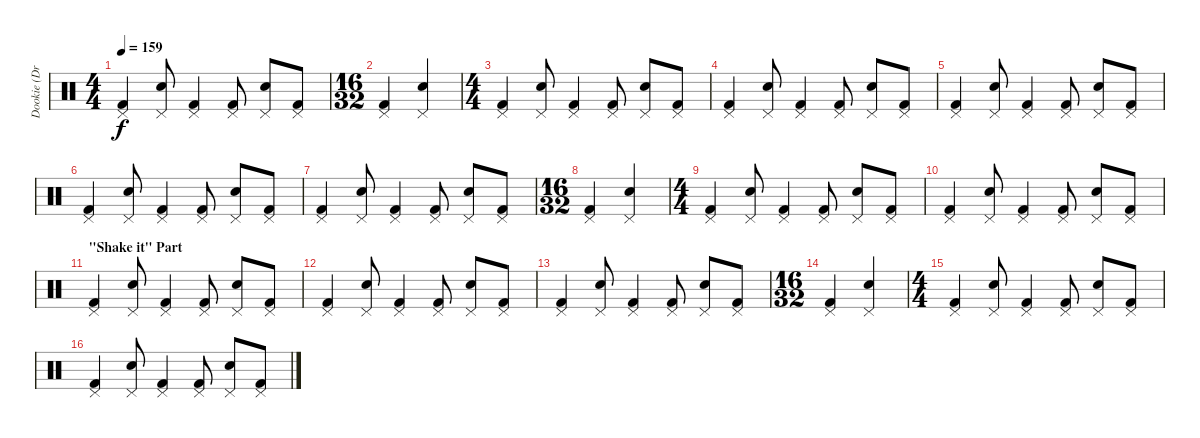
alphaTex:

\track ("Dookie (Drums)" "Dookie (Dr") {instrument percussion}
\staff {score}
\articulation defaults
\ts (4 4)
\tempo 159
\clef neutral
\ks c
("Kick (hit) 2" "Pedal Hi-Hat (hit)").4{dy f} ("Electric Snare (hit)" "Pedal Hi-Hat (hit)").8 ("Kick (hit) 2" "Pedal Hi-Hat (hit)").4 ("Kick (hit) 2" "Pedal Hi-Hat (hit)").8 ("Electric Snare (hit)" "Pedal Hi-Hat (hit)").8 ("Kick (hit) 2" "Pedal Hi-Hat (hit)").8 |
\ts (16 32)
("Kick (hit) 2" "Pedal Hi-Hat (hit)").4 ("Electric Snare (hit)" "Pedal Hi-Hat (hit)").4 |
\ts (4 4)
("Kick (hit) 2" "Pedal Hi-Hat (hit)").4 ("Electric Snare (hit)" "Pedal Hi-Hat (hit)").8 ("Kick (hit) 2" "Pedal Hi-Hat (hit)").4 ("Kick (hit) 2" "Pedal Hi-Hat (hit)").8 ("Electric Snare (hit)" "Pedal Hi-Hat (hit)").8 ("Kick (hit) 2" "Pedal Hi-Hat (hit)").8 |
("Kick (hit) 2" "Pedal Hi-Hat (hit)").4 ("Electric Snare (hit)" "Pedal Hi-Hat (hit)").8 ("Kick (hit) 2" "Pedal Hi-Hat (hit)").4 ("Kick (hit) 2" "Pedal Hi-Hat (hit)").8 ("Electric Snare (hit)" "Pedal Hi-Hat (hit)").8 ("Kick (hit) 2" "Pedal Hi-Hat (hit)").8 |
("Kick (hit) 2" "Pedal Hi-Hat (hit)").4 ("Electric Snare (hit)" "Pedal Hi-Hat (hit)").8 ("Kick (hit) 2" "Pedal Hi-Hat (hit)").4 ("Kick (hit) 2" "Pedal Hi-Hat (hit)").8 ("Electric Snare (hit)" "Pedal Hi-Hat (hit)").8 ("Kick (hit) 2" "Pedal Hi-Hat (hit)").8 |
("Kick (hit) 2" "Pedal Hi-Hat (hit)").4 ("Electric Snare (hit)" "Pedal Hi-Hat (hit)").8 ("Kick (hit) 2" "Pedal Hi-Hat (hit)").4 ("Kick (hit) 2" "Pedal Hi-Hat (hit)").8 ("Electric Snare (hit)" "Pedal Hi-Hat (hit)").8 ("Kick (hit) 2" "Pedal Hi-Hat (hit)").8 |
("Kick (hit) 2" "Pedal Hi-Hat (hit)").4 ("Electric Snare (hit)" "Pedal Hi-Hat (hit)").8 ("Kick (hit) 2" "Pedal Hi-Hat (hit)").4 ("Kick (hit) 2" "Pedal Hi-Hat (hit)").8 ("Electric Snare (hit)" "Pedal Hi-Hat (hit)").8 ("Kick (hit) 2" "Pedal Hi-Hat (hit)").8 |
\ts (16 32)
("Kick (hit) 2" "Pedal Hi-Hat (hit)").4 ("Electric Snare (hit)" "Pedal Hi-Hat (hit)").4 |
\ts (4 4)
("Kick (hit) 2" "Pedal Hi-Hat (hit)").4 ("Electric Snare (hit)" "Pedal Hi-Hat (hit)").8 ("Kick (hit) 2" "Pedal Hi-Hat (hit)").4 ("Kick (hit) 2" "Pedal Hi-Hat (hit)").8 ("Electric Snare (hit)" "Pedal Hi-Hat (hit)").8 ("Kick (hit) 2" "Pedal Hi-Hat (hit)").8 |
("Kick (hit) 2" "Pedal Hi-Hat (hit)").4 ("Electric Snare (hit)" "Pedal Hi-Hat (hit)").8 ("Kick (hit) 2" "Pedal Hi-Hat (hit)").4 ("Kick (hit) 2" "Pedal Hi-Hat (hit)").8 ("Electric Snare (hit)" "Pedal Hi-Hat (hit)").8 ("Kick (hit) 2" "Pedal Hi-Hat (hit)").8 |
\section ("" "\"Shake it\" Part")
("Kick (hit) 2" "Pedal Hi-Hat (hit)").4 ("Electric Snare (hit)" "Pedal Hi-Hat (hit)").8 ("Kick (hit) 2" "Pedal Hi-Hat (hit)").4 ("Kick (hit) 2" "Pedal Hi-Hat (hit)").8 ("Electric Snare (hit)" "Pedal Hi-Hat (hit)").8 ("Kick (hit) 2" "Pedal Hi-Hat (hit)").8 |
("Kick (hit) 2" "Pedal Hi-Hat (hit)").4 ("Electric Snare (hit)" "Pedal Hi-Hat (hit)").8 ("Kick (hit) 2" "Pedal Hi-Hat (hit)").4 ("Kick (hit) 2" "Pedal Hi-Hat (hit)").8 ("Electric Snare (hit)" "Pedal Hi-Hat (hit)").8 ("Kick (hit) 2" "Pedal Hi-Hat (hit)").8 |
("Kick (hit) 2" "Pedal Hi-Hat (hit)").4 ("Electric Snare (hit)" "Pedal Hi-Hat (hit)").8 ("Kick (hit) 2" "Pedal Hi-Hat (hit)").4 ("Kick (hit) 2" "Pedal Hi-Hat (hit)").8 ("Electric Snare (hit)" "Pedal Hi-Hat (hit)").8 ("Kick (hit) 2" "Pedal Hi-Hat (hit)").8 |
\ts (16 32)
("Kick (hit) 2" "Pedal Hi-Hat (hit)").4 ("Electric Snare (hit)" "Pedal Hi-Hat (hit)").4 |
\ts (4 4)
("Kick (hit) 2" "Pedal Hi-Hat (hit)").4 ("Electric Snare (hit)" "Pedal Hi-Hat (hit)").8 ("Kick (hit) 2" "Pedal Hi-Hat (hit)").4 ("Kick (hit) 2" "Pedal Hi-Hat (hit)").8 ("Electric Snare (hit)" "Pedal Hi-Hat (hit)").8 ("Kick (hit) 2" "Pedal Hi-Hat (hit)").8 |
("Kick (hit) 2" "Pedal Hi-Hat (hit)").4 ("Electric Snare (hit)" "Pedal Hi-Hat (hit)").8 ("Kick (hit) 2" "Pedal Hi-Hat (hit)").4 ("Kick (hit) 2" "Pedal Hi-Hat (hit)").8 ("Electric Snare (hit)" "Pedal Hi-Hat (hit)").8 ("Kick (hit) 2" "Pedal Hi-Hat (hit)").8
